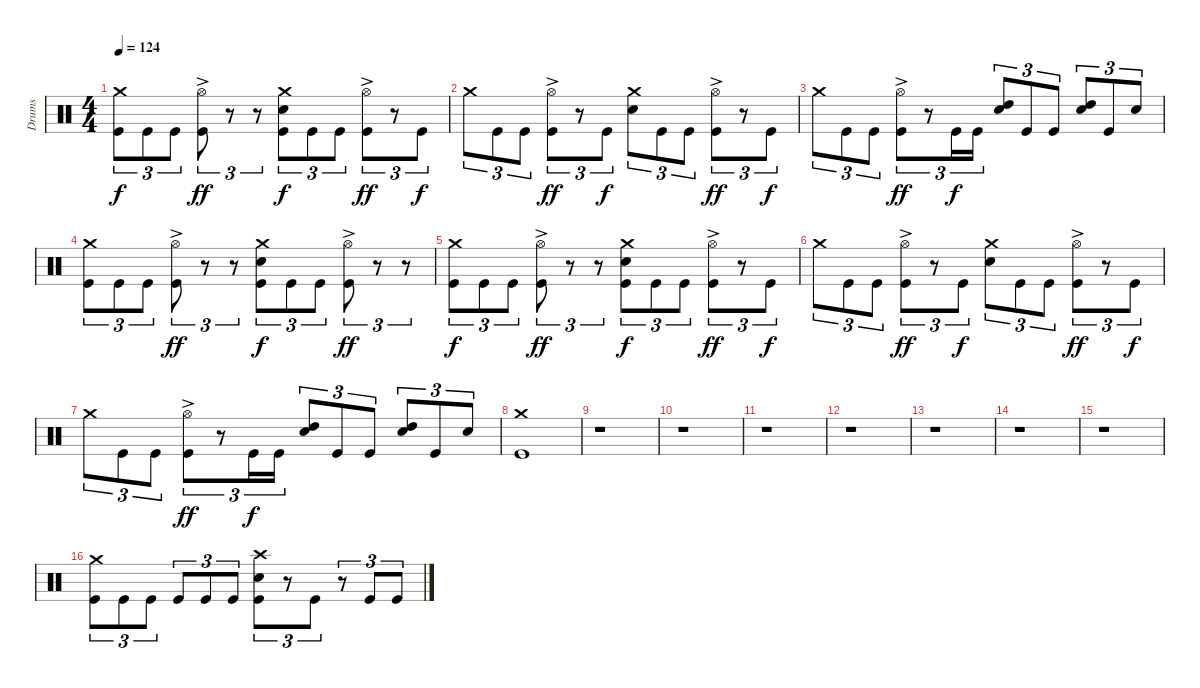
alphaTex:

\track ("Drums" "Drums") {instrument percussion}
\staff {score}
\articulation defaults
\ts (4 4)
\tempo 124
\clef neutral
\ks c
("Crash medium (hit)" "Kick (hit)").8{tu (3 2) dy f} "Kick (hit)".8{tu (3 2)} "Kick (hit)".8{tu (3 2)} ("Hi-Hat (open)"{ac} "Kick (hit)").8{tu (3 2) dy ff} r.8{tu (3 2)} r.8{tu (3 2)} ("Crash medium (hit)" "Electric Snare (hit)" "Kick (hit)").8{tu (3 2) dy f} "Kick (hit)".8{tu (3 2)} "Kick (hit)".8{tu (3 2)} ("Hi-Hat (open)"{ac} "Kick (hit)").8{tu (3 2) dy ff} r.8{tu (3 2)} "Kick (hit)".8{tu (3 2) dy f} |
"Crash medium (hit)".8{tu (3 2)} "Kick (hit)".8{tu (3 2)} "Kick (hit)".8{tu (3 2)} ("Hi-Hat (open)"{ac} "Kick (hit)").8{tu (3 2) dy ff} r.8{tu (3 2)} "Kick (hit)".8{tu (3 2) dy f} ("Crash medium (hit)" "Electric Snare (hit)").8{tu (3 2)} "Kick (hit)".8{tu (3 2)} "Kick (hit)".8{tu (3 2)} ("Hi-Hat (open)"{ac} "Kick (hit)").8{tu (3 2) dy ff} r.8{tu (3 2)} "Kick (hit)".8{tu (3 2) dy f} |
"Crash medium (hit)".8{tu (3 2)} "Kick (hit)".8{tu (3 2)} "Kick (hit)".8{tu (3 2)} ("Hi-Hat (open)"{ac} "Kick (hit)").8{tu (3 2) dy ff} r.8{tu (3 2)} "Kick (hit)".16{tu (3 2) dy f} "Kick (hit)".16{tu (3 2)} ("High Tom (hit)" "Electric Snare (hit)").8{tu (3 2)} "Kick (hit)".8{tu (3 2)} "Kick (hit)".8{tu (3 2)} ("High Tom (hit)" "Electric Snare (hit)").8{tu (3 2)} "Kick (hit)".8{tu (3 2)} "Electric Snare (hit)".8{tu (3 2)} |
("Crash medium (hit)" "Kick (hit)").8{tu (3 2)} "Kick (hit)".8{tu (3 2)} "Kick (hit)".8{tu (3 2)} ("Hi-Hat (open)"{ac} "Kick (hit)").8{tu (3 2) dy ff} r.8{tu (3 2)} r.8{tu (3 2)} ("Crash medium (hit)" "Electric Snare (hit)" "Kick (hit)").8{tu (3 2) dy f} "Kick (hit)".8{tu (3 2)} "Kick (hit)".8{tu (3 2)} ("Hi-Hat (open)"{ac} "Kick (hit)").8{tu (3 2) dy ff} r.8{tu (3 2)} r.8{tu (3 2)} |
("Crash medium (hit)" "Kick (hit)").8{tu (3 2) dy f} "Kick (hit)".8{tu (3 2)} "Kick (hit)".8{tu (3 2)} ("Hi-Hat (open)"{ac} "Kick (hit)").8{tu (3 2) dy ff} r.8{tu (3 2)} r.8{tu (3 2)} ("Crash medium (hit)" "Electric Snare (hit)" "Kick (hit)").8{tu (3 2) dy f} "Kick (hit)".8{tu (3 2)} "Kick (hit)".8{tu (3 2)} ("Hi-Hat (open)"{ac} "Kick (hit)").8{tu (3 2) dy ff} r.8{tu (3 2)} "Kick (hit)".8{tu (3 2) dy f} |
"Crash medium (hit)".8{tu (3 2)} "Kick (hit)".8{tu (3 2)} "Kick (hit)".8{tu (3 2)} ("Hi-Hat (open)"{ac} "Kick (hit)").8{tu (3 2) dy ff} r.8{tu (3 2)} "Kick (hit)".8{tu (3 2) dy f} ("Crash medium (hit)" "Electric Snare (hit)").8{tu (3 2)} "Kick (hit)".8{tu (3 2)} "Kick (hit)".8{tu (3 2)} ("Hi-Hat (open)"{ac} "Kick (hit)").8{tu (3 2) dy ff} r.8{tu (3 2)} "Kick (hit)".8{tu (3 2) dy f} |
"Crash medium (hit)".8{tu (3 2)} "Kick (hit)".8{tu (3 2)} "Kick (hit)".8{tu (3 2)} ("Hi-Hat (open)"{ac} "Kick (hit)").8{tu (3 2) dy ff} r.8{tu (3 2)} "Kick (hit)".16{tu (3 2) dy f} "Kick (hit)".16{tu (3 2)} ("High Tom (hit)" "Electric Snare (hit)").8{tu (3 2)} "Kick (hit)".8{tu (3 2)} "Kick (hit)".8{tu (3 2)} ("High Tom (hit)" "Electric Snare (hit)").8{tu (3 2)} "Kick (hit)".8{tu (3 2)} "Electric Snare (hit)".8{tu (3 2)} |
("Crash medium (hit)" "Kick (hit)").1 |
r.1 |
r.1 |
r.1 |
r.1 |
r.1 |
r.1 |
r.1 |
("Crash medium (hit)" "Kick (hit)").8{tu (3 2)} "Kick (hit)".8{tu (3 2)} "Kick (hit)".8{tu (3 2)} "Kick (hit)".8{tu (3 2)} "Kick (hit)".8{tu (3 2)} "Kick (hit)".8{tu (3 2)} ("Crash high (hit)" "Electric Snare (hit)" "Kick (hit)").8{tu (3 2)} r.8{tu (3 2)} "Kick (hit)".8{tu (3 2)} r.8{tu (3 2)} "Kick (hit)".8{tu (3 2)} "Kick (hit)".8{tu (3 2)}
